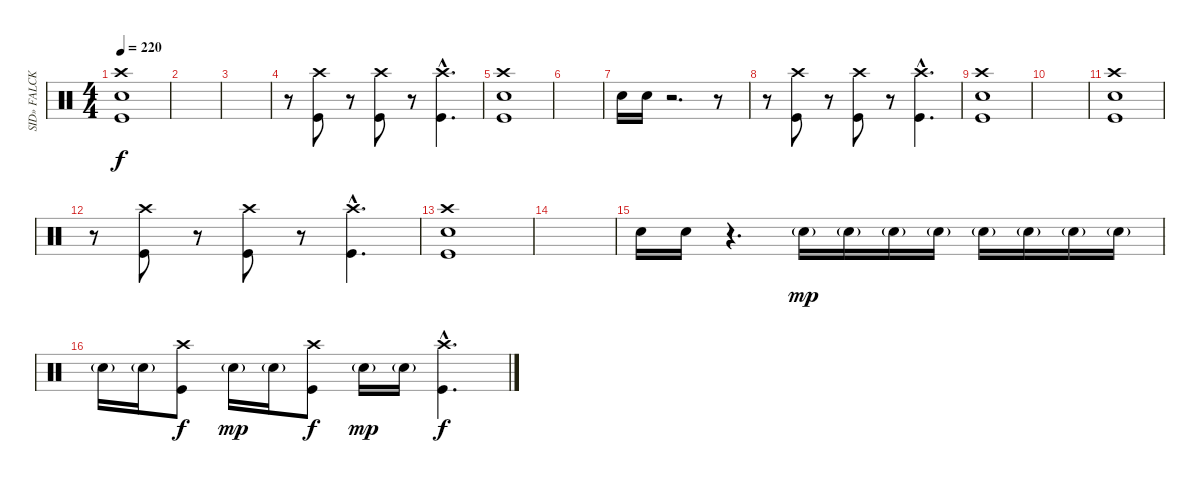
\track ("SID» FALCK- Drums " "SID» FALCK") {instrument percussion}
\staff {score}
\articulation defaults
\ts (4 4)
\tempo 220
\clef neutral
\ks c
("Crash high (hit)" "Electric Snare (hit)" "Kick (hit)").1{dy f} |
|
|
r.8 ("Crash high (hit)" "Kick (hit)").8 r.8 ("Crash high (hit)" "Kick (hit)").8 r.8 ("Crash high (hit)"{hac} "Kick (hit)"{hac}).4{d} |
("Crash high (hit)" "Electric Snare (hit)" "Kick (hit)").1 |
|
"Electric Snare (hit)".16 "Electric Snare (hit)".16 r.2{d} r.8 |
r.8 ("Crash high (hit)" "Kick (hit)").8 r.8 ("Crash high (hit)" "Kick (hit)").8 r.8 ("Crash high (hit)"{hac} "Kick (hit)"{hac}).4{d} |
("Crash high (hit)" "Electric Snare (hit)" "Kick (hit)").1 |
|
("Crash high (hit)" "Electric Snare (hit)" "Kick (hit)").1 |
r.8 ("Crash high (hit)" "Kick (hit)").8 r.8 ("Crash high (hit)" "Kick (hit)").8 r.8 ("Crash high (hit)"{hac} "Kick (hit)"{hac}).4{d} |
("Crash high (hit)" "Electric Snare (hit)" "Kick (hit)").1 |
|
"Electric Snare (hit)".16 "Electric Snare (hit)".16 r.4{d} "Electric Snare (hit)"{g}.16{dy mp} "Electric Snare (hit)"{g}.16 "Electric Snare (hit)"{g}.16 "Electric Snare (hit)"{g}.16 "Electric Snare (hit)"{g}.16 "Electric Snare (hit)"{g}.16 "Electric Snare (hit)"{g}.16 "Electric Snare (hit)"{g}.16 |
"Electric Snare (hit)"{g}.16 "Electric Snare (hit)"{g}.16 ("Crash high (hit)" "Kick (hit)").8{dy f} "Electric Snare (hit)"{g}.16{dy mp} "Electric Snare (hit)"{g}.16 ("Crash high (hit)" "Kick (hit)").8{dy f} "Electric Snare (hit)"{g}.16{dy mp} "Electric Snare (hit)"{g}.16 ("Crash high (hit)"{hac} "Kick (hit)"{hac}).4{d dy f}
